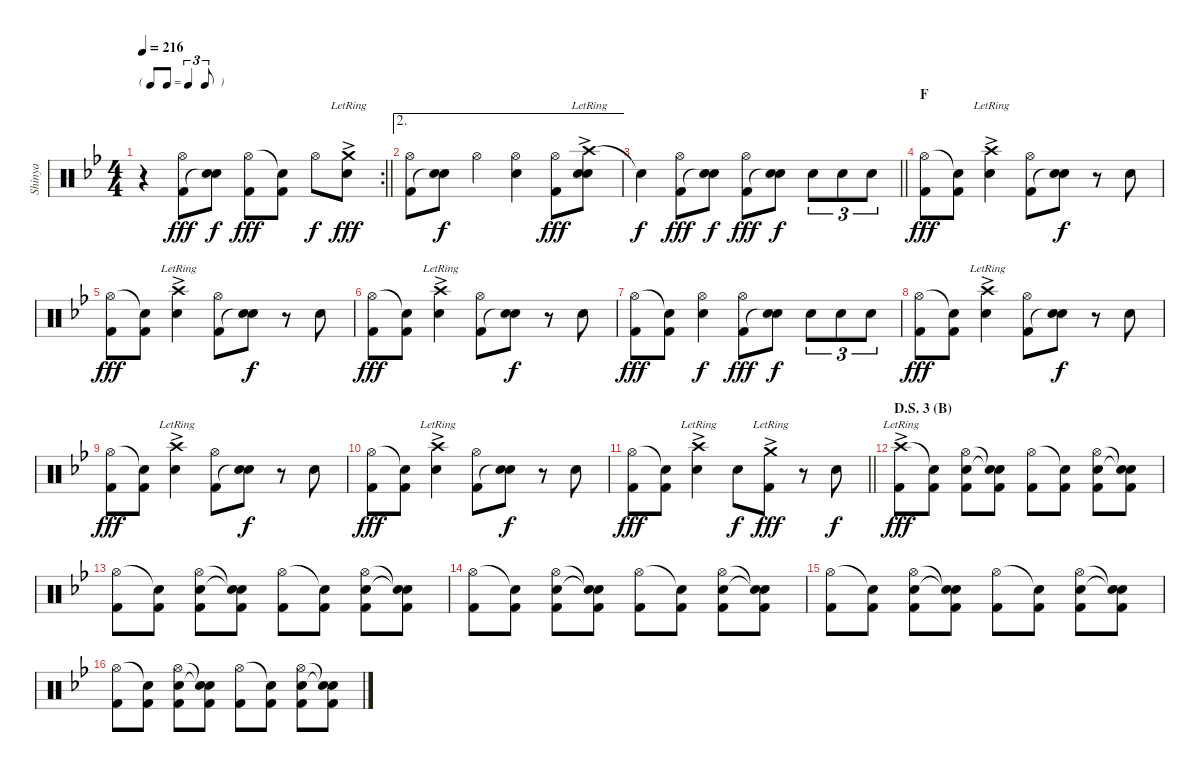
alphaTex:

\track ("Shinya" "Shinya") {instrument percussion}
\staff {score}
\articulation defaults
\rc 2
\ts (4 4)
\tf triplet8th
\tempo 216
\clef neutral
\barLineRight lightlight
\ks bb
r.4{dy fff} ("Hi-Hat (open)" "Kick (hit) 2").8 ("Electric Snare (hit)" "Snare (hit)"{t}).8{dy f} ("Hi-Hat (open)" "Kick (hit) 2").8{dy fff} ("Snare (hit)"{t} "Kick (hit) 2").8 "Hi-Hat (open)".8{dy f} ("Crash medium (hit)"{ac lr} "Electric Snare (hit)").8{dy fff} |
\ae 2
("Hi-Hat (open)" "Kick (hit) 2").8 ("Electric Snare (hit)" "Snare (hit)"{t}).8{dy f} "Hi-Hat (open)".4 ("Hi-Hat (open)" "Electric Snare (hit)").4 ("Hi-Hat (open)" "Kick (hit) 2").8{dy fff} ("Crash high (hit)"{ac lr} "Electric Snare (hit)" "Snare (hit)"{t}).8 |
\barLineRight lightlight "Snare (hit)"{t}.4{dy f}
("Hi-Hat (open)" "Kick (hit) 2").8{dy fff} ("Electric Snare (hit)" "Snare (hit)"{t}).8{dy f} ("Hi-Hat (open)" "Kick (hit) 2").8{dy fff} ("Electric Snare (hit)" "Snare (hit)"{t}).8{dy f} "Electric Snare (hit)".8{tu (3 2)} "Electric Snare (hit)".8{tu (3 2)} "Electric Snare (hit)".8{tu (3 2)} |
\section ("" "F")
("Hi-Hat (open)" "Kick (hit) 2").8{dy fff} ("Snare (hit)"{t} "Kick (hit) 2").8 ("Crash high (hit)"{ac lr} "Electric Snare (hit)").4 ("Hi-Hat (open)" "Kick (hit) 2").8 ("Electric Snare (hit)" "Snare (hit)"{t}).8{dy f} r.8 "Electric Snare (hit)".8 |
("Hi-Hat (open)" "Kick (hit) 2").8{dy fff} ("Snare (hit)"{t} "Kick (hit) 2").8 ("Crash high (hit)"{ac lr} "Electric Snare (hit)").4 ("Hi-Hat (open)" "Kick (hit) 2").8 ("Electric Snare (hit)" "Snare (hit)"{t}).8{dy f} r.8 "Electric Snare (hit)".8 |
("Hi-Hat (open)" "Kick (hit) 2").8{dy fff} ("Snare (hit)"{t} "Kick (hit) 2").8 ("Crash high (hit)"{ac lr} "Electric Snare (hit)").4 ("Hi-Hat (open)" "Kick (hit) 2").8 ("Electric Snare (hit)" "Snare (hit)"{t}).8{dy f} r.8 "Electric Snare (hit)".8 |
("Hi-Hat (open)" "Kick (hit) 2").8{dy fff} ("Snare (hit)"{t} "Kick (hit) 2").8 ("Hi-Hat (open)" "Electric Snare (hit)").4{dy f} ("Hi-Hat (open)" "Kick (hit) 2").8{dy fff} ("Electric Snare (hit)" "Snare (hit)"{t}).8{dy f} "Electric Snare (hit)".8{tu (3 2)} "Electric Snare (hit)".8{tu (3 2)} "Electric Snare (hit)".8{tu (3 2)} |
("Hi-Hat (open)" "Kick (hit) 2").8{dy fff} ("Snare (hit)"{t} "Kick (hit) 2").8 ("Crash high (hit)"{ac lr} "Electric Snare (hit)").4 ("Hi-Hat (open)" "Kick (hit) 2").8 ("Electric Snare (hit)" "Snare (hit)"{t}).8{dy f} r.8 "Electric Snare (hit)".8 |
("Hi-Hat (open)" "Kick (hit) 2").8{dy fff} ("Snare (hit)"{t} "Kick (hit) 2").8 ("Crash high (hit)"{ac lr} "Electric Snare (hit)").4 ("Hi-Hat (open)" "Kick (hit) 2").8 ("Electric Snare (hit)" "Snare (hit)"{t}).8{dy f} r.8 "Electric Snare (hit)".8 |
("Hi-Hat (open)" "Kick (hit) 2").8{dy fff} ("Snare (hit)"{t} "Kick (hit) 2").8 ("Crash high (hit)"{ac lr} "Electric Snare (hit)").4 ("Hi-Hat (open)" "Kick (hit) 2").8 ("Electric Snare (hit)" "Snare (hit)"{t}).8{dy f} r.8 "Electric Snare (hit)".8 |
\barLineRight lightlight
("Hi-Hat (open)" "Kick (hit) 2").8{dy fff} ("Snare (hit)"{t} "Kick (hit) 2").8 ("Crash high (hit)"{ac lr} "Electric Snare (hit)").4 "Electric Snare (hit)".8{dy f} ("Crash medium (hit)"{ac lr} "Kick (hit) 2").8{dy fff} r.8 "Electric Snare (hit)".8{dy f} |
\section ("" "D.S. 3 (B)")
("Crash high (hit)"{ac lr} "Kick (hit) 2").8{dy fff} ("Snare (hit)"{t} "Kick (hit) 2").8 ("Hi-Hat (open)" "Electric Snare (hit)" "Kick (hit) 2").8 ("Snare (hit)"{t} "Snare (hit)"{t} "Kick (hit) 2").8 ("Hi-Hat (open)" "Kick (hit) 2").8 ("Snare (hit)"{t} "Kick (hit) 2").8 ("Hi-Hat (open)" "Electric Snare (hit)" "Kick (hit) 2").8 ("Snare (hit)"{t} "Snare (hit)"{t} "Kick (hit) 2").8 |
("Hi-Hat (open)" "Kick (hit) 2").8 ("Snare (hit)"{t} "Kick (hit) 2").8 ("Hi-Hat (open)" "Electric Snare (hit)" "Kick (hit) 2").8 ("Snare (hit)"{t} "Snare (hit)"{t} "Kick (hit) 2").8 ("Hi-Hat (open)" "Kick (hit) 2").8 ("Snare (hit)"{t} "Kick (hit) 2").8 ("Hi-Hat (open)" "Electric Snare (hit)" "Kick (hit) 2").8 ("Snare (hit)"{t} "Snare (hit)"{t} "Kick (hit) 2").8 |
("Hi-Hat (open)" "Kick (hit) 2").8 ("Snare (hit)"{t} "Kick (hit) 2").8 ("Hi-Hat (open)" "Electric Snare (hit)" "Kick (hit) 2").8 ("Snare (hit)"{t} "Snare (hit)"{t} "Kick (hit) 2").8 ("Hi-Hat (open)" "Kick (hit) 2").8 ("Snare (hit)"{t} "Kick (hit) 2").8 ("Hi-Hat (open)" "Electric Snare (hit)" "Kick (hit) 2").8 ("Snare (hit)"{t} "Snare (hit)"{t} "Kick (hit) 2").8 |
("Hi-Hat (open)" "Kick (hit) 2").8 ("Snare (hit)"{t} "Kick (hit) 2").8 ("Hi-Hat (open)" "Electric Snare (hit)" "Kick (hit) 2").8 ("Snare (hit)"{t} "Snare (hit)"{t} "Kick (hit) 2").8 ("Hi-Hat (open)" "Kick (hit) 2").8 ("Snare (hit)"{t} "Kick (hit) 2").8 ("Hi-Hat (open)" "Electric Snare (hit)" "Kick (hit) 2").8 ("Snare (hit)"{t} "Snare (hit)"{t} "Kick (hit) 2").8 |
("Hi-Hat (open)" "Kick (hit) 2").8 ("Snare (hit)"{t} "Kick (hit) 2").8 ("Hi-Hat (open)" "Electric Snare (hit)" "Kick (hit) 2").8 ("Snare (hit)"{t} "Snare (hit)"{t} "Kick (hit) 2").8 ("Hi-Hat (open)" "Kick (hit) 2").8 ("Snare (hit)"{t} "Kick (hit) 2").8 ("Hi-Hat (open)" "Electric Snare (hit)" "Kick (hit) 2").8 ("Snare (hit)"{t} "Snare (hit)"{t} "Kick (hit) 2").8
